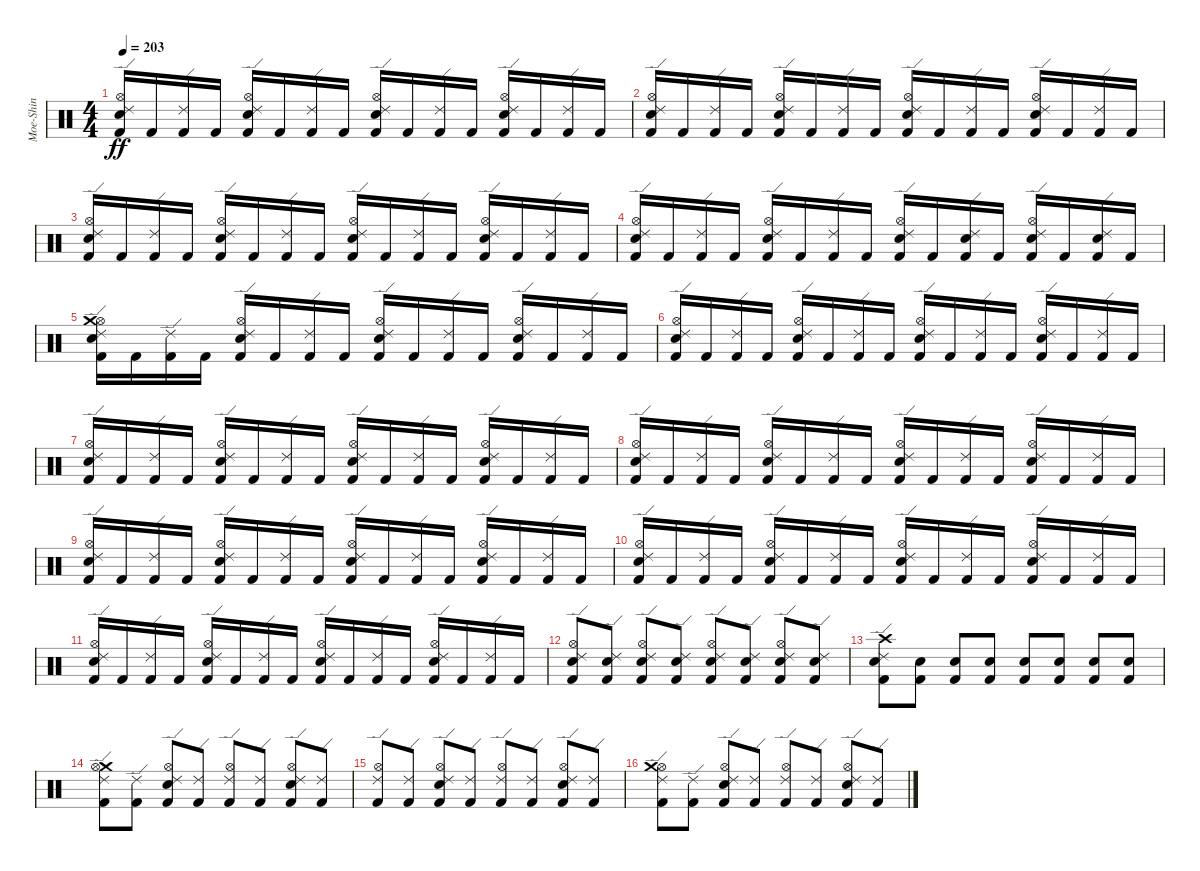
\track ("Moe-Shin" "Moe-Shin") {instrument percussion}
\staff {score}
\articulation defaults
\ts (4 4)
\tempo 203
\clef neutral
\ks c
("Ride (edge) 2" "Hi-Hat (open)" "Snare (hit) 2" "Kick (hit) 2").16{dy ff} "Kick (hit) 2".16 ("Kick (hit) 2" "Ride (edge) 2").16 "Kick (hit) 2".16 ("Kick (hit) 2" "Hi-Hat (open)" "Ride (edge) 2" "Snare (hit) 2").16 "Kick (hit) 2".16 ("Kick (hit) 2" "Ride (edge) 2").16 "Kick (hit) 2".16 ("Snare (hit) 2" "Kick (hit) 2" "Hi-Hat (open)" "Ride (edge) 2").16 "Kick (hit) 2".16 ("Ride (edge) 2" "Kick (hit) 2").16 "Kick (hit) 2".16 ("Snare (hit) 2" "Hi-Hat (open)" "Kick (hit) 2" "Ride (edge) 2").16 "Kick (hit) 2".16 ("Kick (hit) 2" "Ride (edge) 2").16 "Kick (hit) 2".16 |
("Ride (edge) 2" "Hi-Hat (open)" "Kick (hit) 2" "Snare (hit) 2").16 "Kick (hit) 2".16 ("Kick (hit) 2" "Ride (edge) 2").16 "Kick (hit) 2".16 ("Ride (edge) 2" "Hi-Hat (open)" "Kick (hit) 2" "Snare (hit) 2").16 "Kick (hit) 2".16 ("Ride (edge) 2" "Kick (hit) 2").16 "Kick (hit) 2".16 ("Ride (edge) 2" "Hi-Hat (open)" "Kick (hit) 2" "Snare (hit) 2").16 "Kick (hit) 2".16 ("Kick (hit) 2" "Ride (edge) 2").16 "Kick (hit) 2".16 ("Hi-Hat (open)" "Snare (hit) 2" "Ride (edge) 2" "Kick (hit) 2").16 "Kick (hit) 2".16 ("Ride (edge) 2" "Kick (hit) 2").16 "Kick (hit) 2".16 |
("Ride (edge) 2" "Kick (hit) 2" "Snare (hit) 2" "Hi-Hat (open)").16 "Kick (hit) 2".16 ("Kick (hit) 2" "Ride (edge) 2").16 "Kick (hit) 2".16 ("Hi-Hat (open)" "Snare (hit) 2" "Kick (hit) 2" "Ride (edge) 2").16 "Kick (hit) 2".16 ("Ride (edge) 2" "Kick (hit) 2").16 "Kick (hit) 2".16 ("Snare (hit) 2" "Hi-Hat (open)" "Kick (hit) 2" "Ride (edge) 2").16 "Kick (hit) 2".16 ("Kick (hit) 2" "Ride (edge) 2").16 "Kick (hit) 2".16 ("Ride (edge) 2" "Hi-Hat (open)" "Snare (hit) 2" "Kick (hit) 2").16 "Kick (hit) 2".16 ("Kick (hit) 2" "Ride (edge) 2").16 "Kick (hit) 2".16 |
("Hi-Hat (open)" "Kick (hit) 2" "Snare (hit) 2" "Ride (edge) 2").16 "Kick (hit) 2".16 ("Ride (edge) 2" "Kick (hit) 2").16 "Kick (hit) 2".16 ("Kick (hit) 2" "Hi-Hat (open)" "Ride (edge) 2" "Snare (hit) 2").16 "Kick (hit) 2".16 ("Kick (hit) 2" "Ride (edge) 2").16 "Kick (hit) 2".16 ("Snare (hit) 2" "Hi-Hat (open)" "Ride (edge) 2" "Kick (hit) 2").16 "Kick (hit) 2".16 ("Kick (hit) 2" "Ride (edge) 2" "Snare (hit) 2").16 "Kick (hit) 2".16 ("Snare (hit) 2" "Kick (hit) 2" "Hi-Hat (open)" "Ride (edge) 2").16 "Kick (hit) 2".16 ("Kick (hit) 2" "Ride (edge) 2" "Snare (hit) 2").16 "Kick (hit) 2".16 |
("Ride (edge) 2" "Hi-Hat (open)" "Snare (hit) 2" "Crash medium (hit)" "Kick (hit) 2").16 "Kick (hit) 2".16 ("Kick (hit) 2" "Ride (edge) 2").16 "Kick (hit) 2".16 ("Kick (hit) 2" "Hi-Hat (open)" "Snare (hit) 2" "Ride (edge) 2").16 "Kick (hit) 2".16 ("Kick (hit) 2" "Ride (edge) 2").16 "Kick (hit) 2".16 ("Hi-Hat (open)" "Ride (edge) 2" "Snare (hit) 2" "Kick (hit) 2").16 "Kick (hit) 2".16 ("Kick (hit) 2" "Ride (edge) 2").16 "Kick (hit) 2".16 ("Snare (hit) 2" "Hi-Hat (open)" "Ride (edge) 2" "Kick (hit) 2").16 "Kick (hit) 2".16 ("Ride (edge) 2" "Kick (hit) 2").16 "Kick (hit) 2".16 |
("Ride (edge) 2" "Hi-Hat (open)" "Snare (hit) 2" "Kick (hit) 2").16 "Kick (hit) 2".16 ("Ride (edge) 2" "Kick (hit) 2").16 "Kick (hit) 2".16 ("Ride (edge) 2" "Kick (hit) 2" "Snare (hit) 2" "Hi-Hat (open)").16 "Kick (hit) 2".16 ("Ride (edge) 2" "Kick (hit) 2").16 "Kick (hit) 2".16 ("Ride (edge) 2" "Kick (hit) 2" "Snare (hit) 2" "Hi-Hat (open)").16 "Kick (hit) 2".16 ("Ride (edge) 2" "Kick (hit) 2").16 "Kick (hit) 2".16 ("Hi-Hat (open)" "Ride (edge) 2" "Kick (hit) 2" "Snare (hit) 2").16 "Kick (hit) 2".16 ("Ride (edge) 2" "Kick (hit) 2").16 "Kick (hit) 2".16 |
("Kick (hit) 2" "Ride (edge) 2" "Snare (hit) 2" "Hi-Hat (open)").16 "Kick (hit) 2".16 ("Kick (hit) 2" "Ride (edge) 2").16 "Kick (hit) 2".16 ("Ride (edge) 2" "Snare (hit) 2" "Kick (hit) 2" "Hi-Hat (open)").16 "Kick (hit) 2".16 ("Kick (hit) 2" "Ride (edge) 2").16 "Kick (hit) 2".16 ("Snare (hit) 2" "Kick (hit) 2" "Hi-Hat (open)" "Ride (edge) 2").16 "Kick (hit) 2".16 ("Ride (edge) 2" "Kick (hit) 2").16 "Kick (hit) 2".16 ("Ride (edge) 2" "Hi-Hat (open)" "Kick (hit) 2" "Snare (hit) 2").16 "Kick (hit) 2".16 ("Ride (edge) 2" "Kick (hit) 2").16 "Kick (hit) 2".16 |
("Kick (hit) 2" "Ride (edge) 2" "Hi-Hat (open)" "Snare (hit) 2").16 "Kick (hit) 2".16 ("Kick (hit) 2" "Ride (edge) 2").16 "Kick (hit) 2".16 ("Snare (hit) 2" "Kick (hit) 2" "Ride (edge) 2" "Hi-Hat (open)").16 "Kick (hit) 2".16 ("Kick (hit) 2" "Ride (edge) 2").16 "Kick (hit) 2".16 ("Snare (hit) 2" "Ride (edge) 2" "Kick (hit) 2" "Hi-Hat (open)").16 "Kick (hit) 2".16 ("Kick (hit) 2" "Ride (edge) 2").16 "Kick (hit) 2".16 ("Snare (hit) 2" "Ride (edge) 2" "Kick (hit) 2" "Hi-Hat (open)").16 "Kick (hit) 2".16 ("Ride (edge) 2" "Kick (hit) 2").16 "Kick (hit) 2".16 |
("Snare (hit) 2" "Ride (edge) 2" "Kick (hit) 2" "Hi-Hat (open)").16 "Kick (hit) 2".16 ("Kick (hit) 2" "Ride (edge) 2").16 "Kick (hit) 2".16 ("Ride (edge) 2" "Kick (hit) 2" "Snare (hit) 2" "Hi-Hat (open)").16 "Kick (hit) 2".16 ("Kick (hit) 2" "Ride (edge) 2").16 "Kick (hit) 2".16 ("Kick (hit) 2" "Snare (hit) 2" "Hi-Hat (open)" "Ride (edge) 2").16 "Kick (hit) 2".16 ("Kick (hit) 2" "Ride (edge) 2").16 "Kick (hit) 2".16 ("Ride (edge) 2" "Kick (hit) 2" "Snare (hit) 2" "Hi-Hat (open)").16 "Kick (hit) 2".16 ("Ride (edge) 2" "Kick (hit) 2").16 "Kick (hit) 2".16 |
("Ride (edge) 2" "Hi-Hat (open)" "Kick (hit) 2" "Snare (hit) 2").16 "Kick (hit) 2".16 ("Ride (edge) 2" "Kick (hit) 2").16 "Kick (hit) 2".16 ("Hi-Hat (open)" "Snare (hit) 2" "Kick (hit) 2" "Ride (edge) 2").16 "Kick (hit) 2".16 ("Ride (edge) 2" "Kick (hit) 2").16 "Kick (hit) 2".16 ("Ride (edge) 2" "Hi-Hat (open)" "Snare (hit) 2" "Kick (hit) 2").16 "Kick (hit) 2".16 ("Kick (hit) 2" "Ride (edge) 2").16 "Kick (hit) 2".16 ("Kick (hit) 2" "Snare (hit) 2" "Hi-Hat (open)" "Ride (edge) 2").16 "Kick (hit) 2".16 ("Kick (hit) 2" "Ride (edge) 2").16 "Kick (hit) 2".16 |
("Kick (hit) 2" "Hi-Hat (open)" "Ride (edge) 2" "Snare (hit) 2").16 "Kick (hit) 2".16 ("Ride (edge) 2" "Kick (hit) 2").16 "Kick (hit) 2".16 ("Snare (hit) 2" "Hi-Hat (open)" "Kick (hit) 2" "Ride (edge) 2").16 "Kick (hit) 2".16 ("Kick (hit) 2" "Ride (edge) 2").16 "Kick (hit) 2".16 ("Ride (edge) 2" "Hi-Hat (open)" "Snare (hit) 2" "Kick (hit) 2").16 "Kick (hit) 2".16 ("Kick (hit) 2" "Ride (edge) 2").16 "Kick (hit) 2".16 ("Hi-Hat (open)" "Snare (hit) 2" "Kick (hit) 2" "Ride (edge) 2").16 "Kick (hit) 2".16 ("Kick (hit) 2" "Ride (edge) 2").16 "Kick (hit) 2".16 |
("Kick (hit) 2" "Snare (hit) 2" "Ride (edge) 2" "Hi-Hat (open)").8 ("Kick (hit) 2" "Ride (edge) 2" "Snare (hit) 2").8 ("Hi-Hat (open)" "Kick (hit) 2" "Ride (edge) 2" "Snare (hit) 2").8 ("Kick (hit) 2" "Ride (edge) 2" "Snare (hit) 2").8 ("Snare (hit) 2" "Ride (edge) 2" "Hi-Hat (open)" "Kick (hit) 2").8 ("Ride (edge) 2" "Kick (hit) 2" "Snare (hit) 2").8 ("Kick (hit) 2" "Snare (hit) 2" "Ride (edge) 2" "Hi-Hat (open)").8 ("Snare (hit) 2" "Ride (edge) 2" "Kick (hit) 2").8 |
("Snare (hit) 2" "Ride (edge) 2" "Kick (hit) 2" "Crash high (hit)").8 ("Kick (hit) 2" "Snare (hit) 2").8 ("Snare (hit) 2" "Kick (hit) 2").8 ("Kick (hit) 2" "Snare (hit) 2").8 ("Snare (hit) 2" "Kick (hit) 2").8 ("Kick (hit) 2" "Snare (hit) 2").8 ("Kick (hit) 2" "Snare (hit) 2").8 ("Kick (hit) 2" "Snare (hit) 2").8 |
("Crash medium (hit)" "Kick (hit) 2" "Ride (edge) 2" "Hi-Hat (open)").8 ("Ride (edge) 2" "Kick (hit) 2").8 ("Hi-Hat (open)" "Kick (hit) 2" "Ride (edge) 2" "Snare (hit) 2").8 ("Kick (hit) 2" "Ride (edge) 2").8 ("Kick (hit) 2" "Hi-Hat (open)" "Ride (edge) 2").8 ("Kick (hit) 2" "Ride (edge) 2").8 ("Ride (edge) 2" "Hi-Hat (open)" "Snare (hit) 2" "Kick (hit) 2").8 ("Ride (edge) 2" "Kick (hit) 2").8 |
("Ride (edge) 2" "Hi-Hat (open)" "Kick (hit) 2").8 ("Ride (edge) 2" "Kick (hit) 2").8 ("Ride (edge) 2" "Hi-Hat (open)" "Kick (hit) 2" "Snare (hit) 2").8 ("Kick (hit) 2" "Ride (edge) 2").8 ("Hi-Hat (open)" "Kick (hit) 2" "Ride (edge) 2").8 ("Ride (edge) 2" "Kick (hit) 2").8 ("Hi-Hat (open)" "Snare (hit) 2" "Ride (edge) 2" "Kick (hit) 2").8 ("Kick (hit) 2" "Ride (edge) 2").8 |
("Ride (edge) 2" "Hi-Hat (open)" "Crash medium (hit)" "Kick (hit) 2").8 ("Ride (edge) 2" "Kick (hit) 2").8 ("Kick (hit) 2" "Ride (edge) 2" "Snare (hit) 2" "Hi-Hat (open)").8 ("Kick (hit) 2" "Ride (edge) 2").8 ("Ride (edge) 2" "Kick (hit) 2" "Hi-Hat (open)").8 ("Kick (hit) 2" "Ride (edge) 2").8 ("Kick (hit) 2" "Snare (hit) 2" "Ride (edge) 2" "Hi-Hat (open)").8 ("Ride (edge) 2" "Kick (hit) 2").8
